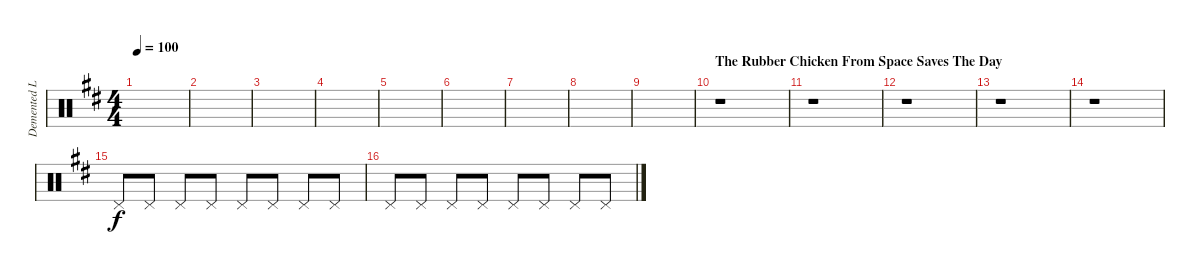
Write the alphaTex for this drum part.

\track ("Demented Leming (Drums)" "Demented L") {instrument percussion}
\staff {score}
\articulation defaults
\ts (4 4)
\tempo 100
\clef neutral
\ks d
|
|
|
|
|
|
|
|
|
\section ("" "The Rubber Chicken From Space Saves The Day")
r.1 |
r.1 |
r.1 |
r.1 |
r.1 |
"Pedal Hi-Hat (hit)".8 "Pedal Hi-Hat (hit)".8 "Pedal Hi-Hat (hit)".8 "Pedal Hi-Hat (hit)".8 "Pedal Hi-Hat (hit)".8 "Pedal Hi-Hat (hit)".8 "Pedal Hi-Hat (hit)".8 "Pedal Hi-Hat (hit)".8 |
"Pedal Hi-Hat (hit)".8 "Pedal Hi-Hat (hit)".8 "Pedal Hi-Hat (hit)".8 "Pedal Hi-Hat (hit)".8 "Pedal Hi-Hat (hit)".8 "Pedal Hi-Hat (hit)".8 "Pedal Hi-Hat (hit)".8 "Pedal Hi-Hat (hit)".8
